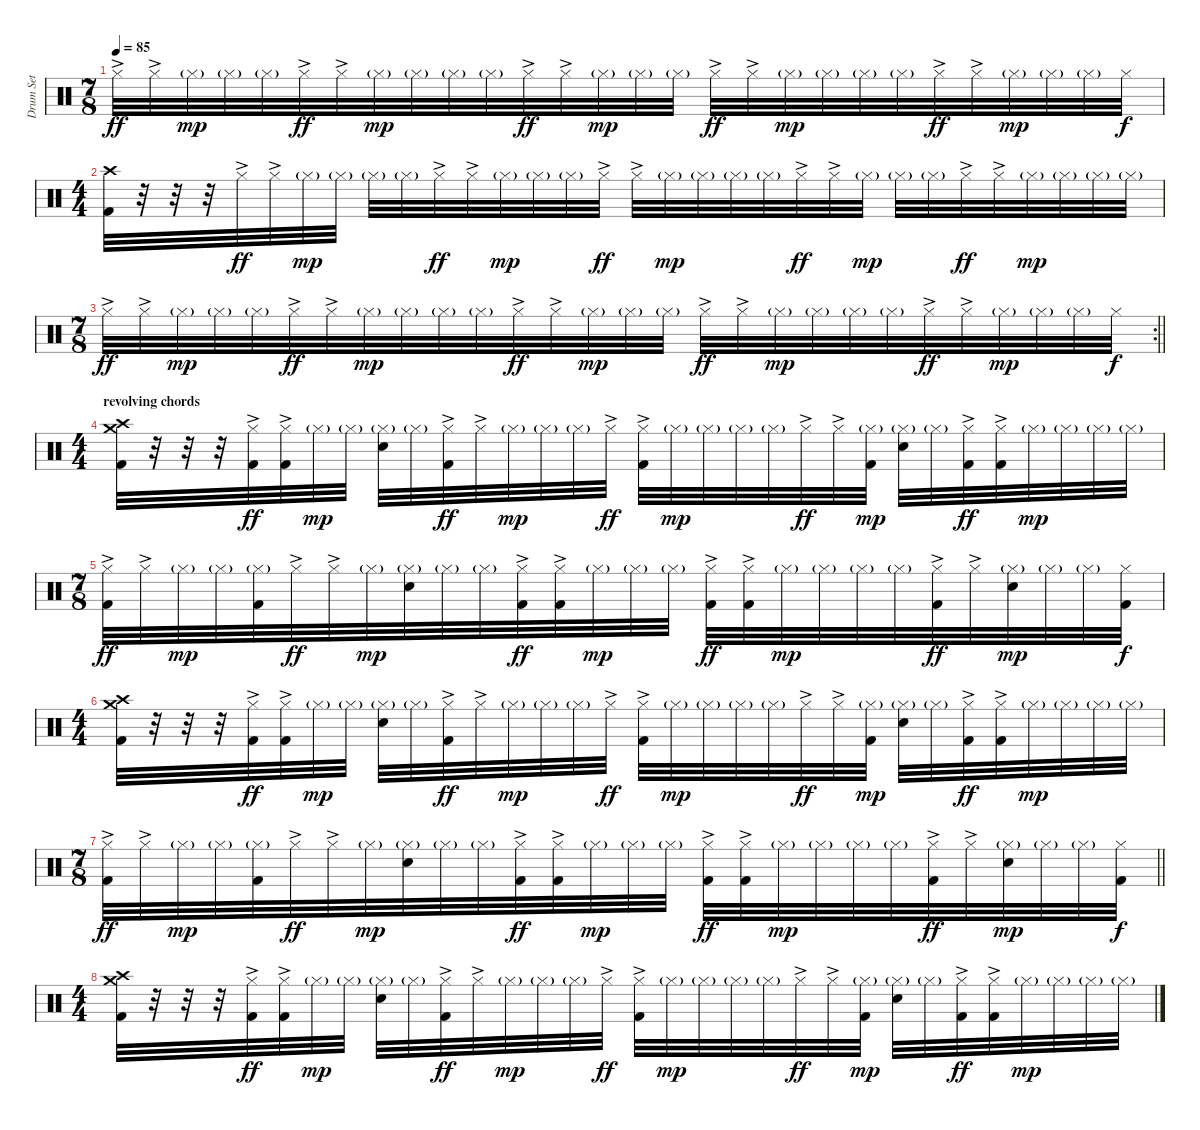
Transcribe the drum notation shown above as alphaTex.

\track ("Drum Set" "Drum Set") {instrument percussion}
\staff {score}
\articulation defaults
\ts (7 8)
\tempo 85
\clef neutral
\ks c "Hi-Hat (closed)"{ac}.32{dy ff} "Hi-Hat (closed)"{ac}.32 "Hi-Hat (closed)"{g}.32{dy mp} "Hi-Hat (closed)"{g}.32 "Hi-Hat (closed)"{g}.32 "Hi-Hat (closed)"{ac}.32{dy ff} "Hi-Hat (closed)"{ac}.32 "Hi-Hat (closed)"{g}.32{dy mp} "Hi-Hat (closed)"{g}.32 "Hi-Hat (closed)"{g}.32 "Hi-Hat (closed)"{g}.32 "Hi-Hat (closed)"{ac}.32{dy ff} "Hi-Hat (closed)"{ac}.32 "Hi-Hat (closed)"{g}.32{dy mp} "Hi-Hat (closed)"{g}.32 "Hi-Hat (closed)"{g}.32 "Hi-Hat (closed)"{ac}.32{dy ff} "Hi-Hat (closed)"{ac}.32 "Hi-Hat (closed)"{g}.32{dy mp} "Hi-Hat (closed)"{g}.32 "Hi-Hat (closed)"{g}.32 "Hi-Hat (closed)"{g}.32 "Hi-Hat (closed)"{ac}.32{dy ff} "Hi-Hat (closed)"{ac}.32 "Hi-Hat (closed)"{g}.32{dy mp} "Hi-Hat (closed)"{g}.32 "Hi-Hat (closed)"{g}.32 "Hi-Hat (closed)".32{dy f}
|
\ts (4 4)
("Crash high (hit)" "Kick (hit) 2").32 r.32 r.32 r.32 "Hi-Hat (closed)"{ac}.32{dy ff} "Hi-Hat (closed)"{ac}.32 "Hi-Hat (closed)"{g}.32{dy mp} "Hi-Hat (closed)"{g}.32 "Hi-Hat (closed)"{g}.32 "Hi-Hat (closed)"{g}.32 "Hi-Hat (closed)"{ac}.32{dy ff} "Hi-Hat (closed)"{ac}.32 "Hi-Hat (closed)"{g}.32{dy mp} "Hi-Hat (closed)"{g}.32 "Hi-Hat (closed)"{g}.32 "Hi-Hat (closed)"{ac}.32{dy ff} "Hi-Hat (closed)"{ac}.32 "Hi-Hat (closed)"{g}.32{dy mp} "Hi-Hat (closed)"{g}.32 "Hi-Hat (closed)"{g}.32 "Hi-Hat (closed)"{g}.32 "Hi-Hat (closed)"{ac}.32{dy ff} "Hi-Hat (closed)"{ac}.32 "Hi-Hat (closed)"{g}.32{dy mp} "Hi-Hat (closed)"{g}.32 "Hi-Hat (closed)"{g}.32 "Hi-Hat (closed)"{ac}.32{dy ff} "Hi-Hat (closed)"{ac}.32 "Hi-Hat (closed)"{g}.32{dy mp} "Hi-Hat (closed)"{g}.32 "Hi-Hat (closed)"{g}.32 "Hi-Hat (closed)"{g}.32 |
\rc 2
\ts (7 8)
\barLineRight lightlight "Hi-Hat (closed)"{ac}.32{dy ff} "Hi-Hat (closed)"{ac}.32 "Hi-Hat (closed)"{g}.32{dy mp} "Hi-Hat (closed)"{g}.32 "Hi-Hat (closed)"{g}.32 "Hi-Hat (closed)"{ac}.32{dy ff} "Hi-Hat (closed)"{ac}.32 "Hi-Hat (closed)"{g}.32{dy mp} "Hi-Hat (closed)"{g}.32 "Hi-Hat (closed)"{g}.32 "Hi-Hat (closed)"{g}.32 "Hi-Hat (closed)"{ac}.32{dy ff} "Hi-Hat (closed)"{ac}.32 "Hi-Hat (closed)"{g}.32{dy mp} "Hi-Hat (closed)"{g}.32 "Hi-Hat (closed)"{g}.32 "Hi-Hat (closed)"{ac}.32{dy ff} "Hi-Hat (closed)"{ac}.32 "Hi-Hat (closed)"{g}.32{dy mp} "Hi-Hat (closed)"{g}.32 "Hi-Hat (closed)"{g}.32 "Hi-Hat (closed)"{g}.32 "Hi-Hat (closed)"{ac}.32{dy ff} "Hi-Hat (closed)"{ac}.32 "Hi-Hat (closed)"{g}.32{dy mp} "Hi-Hat (closed)"{g}.32 "Hi-Hat (closed)"{g}.32 "Hi-Hat (closed)".32{dy f}
|
\ts (4 4)
\section ("" "revolving chords")
("Crash high (hit)" "Crash medium (hit)" "Kick (hit) 2").32 r.32 r.32 r.32 ("Hi-Hat (closed)"{ac} "Kick (hit) 2").32{dy ff} ("Hi-Hat (closed)"{ac} "Kick (hit) 2").32 "Hi-Hat (closed)"{g}.32{dy mp} "Hi-Hat (closed)"{g}.32 ("Hi-Hat (closed)"{g} "Electric Snare (hit)").32 "Hi-Hat (closed)"{g}.32 ("Hi-Hat (closed)"{ac} "Kick (hit) 2").32{dy ff} "Hi-Hat (closed)"{ac}.32 "Hi-Hat (closed)"{g}.32{dy mp} "Hi-Hat (closed)"{g}.32 "Hi-Hat (closed)"{g}.32 "Hi-Hat (closed)"{ac}.32{dy ff} ("Hi-Hat (closed)"{ac} "Kick (hit) 2").32 "Hi-Hat (closed)"{g}.32{dy mp} "Hi-Hat (closed)"{g}.32 "Hi-Hat (closed)"{g}.32 "Hi-Hat (closed)"{g}.32 "Hi-Hat (closed)"{ac}.32{dy ff} "Hi-Hat (closed)"{ac}.32 ("Hi-Hat (closed)"{g} "Kick (hit) 2").32{dy mp} ("Hi-Hat (closed)"{g} "Electric Snare (hit)").32 "Hi-Hat (closed)"{g}.32 ("Hi-Hat (closed)"{ac} "Kick (hit) 2").32{dy ff} ("Hi-Hat (closed)"{ac} "Kick (hit) 2").32 "Hi-Hat (closed)"{g}.32{dy mp} "Hi-Hat (closed)"{g}.32 "Hi-Hat (closed)"{g}.32 "Hi-Hat (closed)"{g}.32 |
\ts (7 8)
("Hi-Hat (closed)"{ac} "Kick (hit) 2").32{dy ff} "Hi-Hat (closed)"{ac}.32 "Hi-Hat (closed)"{g}.32{dy mp} "Hi-Hat (closed)"{g}.32 ("Hi-Hat (closed)"{g} "Kick (hit) 2").32 "Hi-Hat (closed)"{ac}.32{dy ff} "Hi-Hat (closed)"{ac}.32 "Hi-Hat (closed)"{g}.32{dy mp} ("Hi-Hat (closed)"{g} "Electric Snare (hit)").32 "Hi-Hat (closed)"{g}.32 "Hi-Hat (closed)"{g}.32 ("Hi-Hat (closed)"{ac} "Kick (hit) 2").32{dy ff} ("Hi-Hat (closed)"{ac} "Kick (hit) 2").32 "Hi-Hat (closed)"{g}.32{dy mp} "Hi-Hat (closed)"{g}.32 "Hi-Hat (closed)"{g}.32 ("Hi-Hat (closed)"{ac} "Kick (hit) 2").32{dy ff} ("Hi-Hat (closed)"{ac} "Kick (hit) 2").32 "Hi-Hat (closed)"{g}.32{dy mp} "Hi-Hat (closed)"{g}.32 "Hi-Hat (closed)"{g}.32 "Hi-Hat (closed)"{g}.32 ("Hi-Hat (closed)"{ac} "Kick (hit) 2").32{dy ff} "Hi-Hat (closed)"{ac}.32 ("Hi-Hat (closed)"{g} "Electric Snare (hit)").32{dy mp} "Hi-Hat (closed)"{g}.32 "Hi-Hat (closed)"{g}.32 ("Hi-Hat (closed)" "Kick (hit) 2").32{dy f} |
\ts (4 4)
("Crash high (hit)" "Crash medium (hit)" "Kick (hit) 2").32 r.32 r.32 r.32 ("Hi-Hat (closed)"{ac} "Kick (hit) 2").32{dy ff} ("Hi-Hat (closed)"{ac} "Kick (hit) 2").32 "Hi-Hat (closed)"{g}.32{dy mp} "Hi-Hat (closed)"{g}.32 ("Hi-Hat (closed)"{g} "Electric Snare (hit)").32 "Hi-Hat (closed)"{g}.32 ("Hi-Hat (closed)"{ac} "Kick (hit) 2").32{dy ff} "Hi-Hat (closed)"{ac}.32 "Hi-Hat (closed)"{g}.32{dy mp} "Hi-Hat (closed)"{g}.32 "Hi-Hat (closed)"{g}.32 "Hi-Hat (closed)"{ac}.32{dy ff} ("Hi-Hat (closed)"{ac} "Kick (hit) 2").32 "Hi-Hat (closed)"{g}.32{dy mp} "Hi-Hat (closed)"{g}.32 "Hi-Hat (closed)"{g}.32 "Hi-Hat (closed)"{g}.32 "Hi-Hat (closed)"{ac}.32{dy ff} "Hi-Hat (closed)"{ac}.32 ("Hi-Hat (closed)"{g} "Kick (hit) 2").32{dy mp} ("Hi-Hat (closed)"{g} "Electric Snare (hit)").32 "Hi-Hat (closed)"{g}.32 ("Hi-Hat (closed)"{ac} "Kick (hit) 2").32{dy ff} ("Hi-Hat (closed)"{ac} "Kick (hit) 2").32 "Hi-Hat (closed)"{g}.32{dy mp} "Hi-Hat (closed)"{g}.32 "Hi-Hat (closed)"{g}.32 "Hi-Hat (closed)"{g}.32 |
\ts (7 8)
\barLineRight lightlight
("Hi-Hat (closed)"{ac} "Kick (hit) 2").32{dy ff} "Hi-Hat (closed)"{ac}.32 "Hi-Hat (closed)"{g}.32{dy mp} "Hi-Hat (closed)"{g}.32 ("Hi-Hat (closed)"{g} "Kick (hit) 2").32 "Hi-Hat (closed)"{ac}.32{dy ff} "Hi-Hat (closed)"{ac}.32 "Hi-Hat (closed)"{g}.32{dy mp} ("Hi-Hat (closed)"{g} "Electric Snare (hit)").32 "Hi-Hat (closed)"{g}.32 "Hi-Hat (closed)"{g}.32 ("Hi-Hat (closed)"{ac} "Kick (hit) 2").32{dy ff} ("Hi-Hat (closed)"{ac} "Kick (hit) 2").32 "Hi-Hat (closed)"{g}.32{dy mp} "Hi-Hat (closed)"{g}.32 "Hi-Hat (closed)"{g}.32 ("Hi-Hat (closed)"{ac} "Kick (hit) 2").32{dy ff} ("Hi-Hat (closed)"{ac} "Kick (hit) 2").32 "Hi-Hat (closed)"{g}.32{dy mp} "Hi-Hat (closed)"{g}.32 "Hi-Hat (closed)"{g}.32 "Hi-Hat (closed)"{g}.32 ("Hi-Hat (closed)"{ac} "Kick (hit) 2").32{dy ff} "Hi-Hat (closed)"{ac}.32 ("Hi-Hat (closed)"{g} "Electric Snare (hit)").32{dy mp} "Hi-Hat (closed)"{g}.32 "Hi-Hat (closed)"{g}.32 ("Hi-Hat (closed)" "Kick (hit) 2").32{dy f} |
\ts (4 4)
("Crash high (hit)" "Crash medium (hit)" "Kick (hit) 2").32 r.32 r.32 r.32 ("Hi-Hat (closed)"{ac} "Kick (hit) 2").32{dy ff} ("Hi-Hat (closed)"{ac} "Kick (hit) 2").32 "Hi-Hat (closed)"{g}.32{dy mp} "Hi-Hat (closed)"{g}.32 ("Hi-Hat (closed)"{g} "Electric Snare (hit)").32 "Hi-Hat (closed)"{g}.32 ("Hi-Hat (closed)"{ac} "Kick (hit) 2").32{dy ff} "Hi-Hat (closed)"{ac}.32 "Hi-Hat (closed)"{g}.32{dy mp} "Hi-Hat (closed)"{g}.32 "Hi-Hat (closed)"{g}.32 "Hi-Hat (closed)"{ac}.32{dy ff} ("Hi-Hat (closed)"{ac} "Kick (hit) 2").32 "Hi-Hat (closed)"{g}.32{dy mp} "Hi-Hat (closed)"{g}.32 "Hi-Hat (closed)"{g}.32 "Hi-Hat (closed)"{g}.32 "Hi-Hat (closed)"{ac}.32{dy ff} "Hi-Hat (closed)"{ac}.32 ("Hi-Hat (closed)"{g} "Kick (hit) 2").32{dy mp} ("Hi-Hat (closed)"{g} "Electric Snare (hit)").32 "Hi-Hat (closed)"{g}.32 ("Hi-Hat (closed)"{ac} "Kick (hit) 2").32{dy ff} ("Hi-Hat (closed)"{ac} "Kick (hit) 2").32 "Hi-Hat (closed)"{g}.32{dy mp} "Hi-Hat (closed)"{g}.32 "Hi-Hat (closed)"{g}.32 "Hi-Hat (closed)"{g}.32
